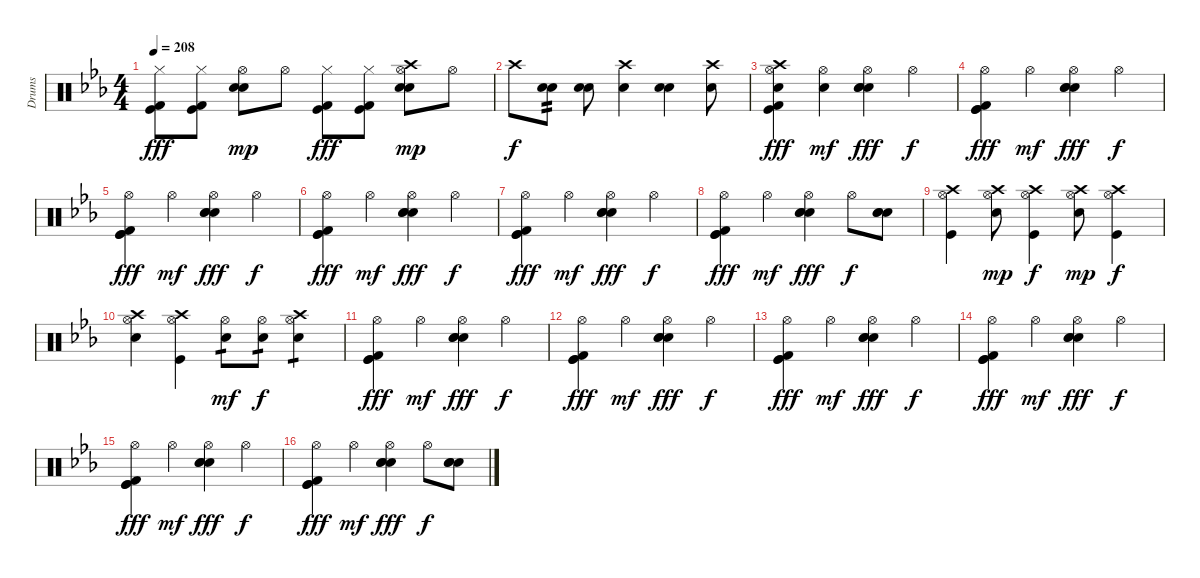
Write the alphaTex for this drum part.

\track ("Drums" "Drums") {instrument percussion}
\staff {score}
\articulation defaults
\ts (4 4)
\tempo 208
\clef neutral
\ks cminor
("Hi-Hat (closed)" "Kick (hit) 2" "Kick (hit)").8{dy fff} ("Hi-Hat (closed)" "Kick (hit) 2" "Kick (hit)").8 ("Hi-Hat (open)" "Snare (hit) 2" "Electric Snare (hit)").8{dy mp} "Hi-Hat (open)".8 ("Hi-Hat (closed)" "Kick (hit) 2" "Kick (hit)").8{dy fff} ("Hi-Hat (closed)" "Kick (hit) 2" "Kick (hit)").8 ("Crash high (hit)" "Hi-Hat (open)" "Snare (hit) 2" "Electric Snare (hit)").8{dy mp} "Hi-Hat (open)".8 |
"Crash high (hit)".8{dy f} ("Snare (hit) 2" "Electric Snare (hit)").8{tp 2} ("Snare (hit) 2" "Electric Snare (hit)").8 ("Crash high (hit)" "Electric Snare (hit)").4 ("Snare (hit) 2" "Electric Snare (hit)").4 ("Crash high (hit)" "Electric Snare (hit)").8 |
("Crash high (hit)" "Kick (hit) 2" "Electric Snare (hit)" "Kick (hit)" "Hi-Hat (open)").4{dy fff} ("Electric Snare (hit)" "Hi-Hat (open)").4{dy mf} ("Snare (hit) 2" "Electric Snare (hit)" "Electric Snare (hit)" "Hi-Hat (open)").4{dy fff} "Hi-Hat (open)".4{dy f} |
("Kick (hit) 2" "Kick (hit)" "Kick (hit)" "Hi-Hat (open)").4{dy fff} "Hi-Hat (open)".4{dy mf} ("Snare (hit) 2" "Electric Snare (hit)" "Electric Snare (hit)" "Hi-Hat (open)").4{dy fff} "Hi-Hat (open)".4{dy f} |
("Kick (hit) 2" "Kick (hit)" "Kick (hit)" "Hi-Hat (open)").4{dy fff} "Hi-Hat (open)".4{dy mf} ("Snare (hit) 2" "Electric Snare (hit)" "Electric Snare (hit)" "Hi-Hat (open)").4{dy fff} "Hi-Hat (open)".4{dy f} |
("Kick (hit) 2" "Kick (hit)" "Kick (hit)" "Hi-Hat (open)").4{dy fff} "Hi-Hat (open)".4{dy mf} ("Snare (hit) 2" "Electric Snare (hit)" "Electric Snare (hit)" "Hi-Hat (open)").4{dy fff} "Hi-Hat (open)".4{dy f} |
("Kick (hit) 2" "Kick (hit)" "Kick (hit)" "Hi-Hat (open)").4{dy fff} "Hi-Hat (open)".4{dy mf} ("Snare (hit) 2" "Electric Snare (hit)" "Electric Snare (hit)" "Hi-Hat (open)").4{dy fff} "Hi-Hat (open)".4{dy f} |
("Kick (hit) 2" "Kick (hit)" "Kick (hit)" "Hi-Hat (open)").4{dy fff} "Hi-Hat (open)".4{dy mf} ("Snare (hit) 2" "Electric Snare (hit)" "Electric Snare (hit)" "Hi-Hat (open)").4{dy fff} "Hi-Hat (open)".8{dy f} ("Snare (hit) 2" "Electric Snare (hit)" "Electric Snare (hit)").8 |
("Hi-Hat (open)" "Crash high (hit)" "Kick (hit)").4 ("Hi-Hat (open)" "Crash high (hit)" "Electric Snare (hit)").8{dy mp} ("Hi-Hat (open)" "Crash high (hit)" "Kick (hit)").4{dy f} ("Hi-Hat (open)" "Crash high (hit)" "Electric Snare (hit)").8{dy mp} ("Hi-Hat (open)" "Crash high (hit)" "Kick (hit)").4{dy f} |
("Hi-Hat (open)" "Crash high (hit)" "Electric Snare (hit)").4 ("Hi-Hat (open)" "Crash high (hit)" "Kick (hit)").4 ("Hi-Hat (open)" "Electric Snare (hit)").8{tp 1 dy mf} ("Hi-Hat (open)" "Electric Snare (hit)").8{tp 1 dy f} ("Hi-Hat (open)" "Crash high (hit)" "Electric Snare (hit)").4{tp 1} |
("Kick (hit) 2" "Kick (hit)" "Kick (hit)" "Hi-Hat (open)").4{dy fff} "Hi-Hat (open)".4{dy mf} ("Snare (hit) 2" "Electric Snare (hit)" "Electric Snare (hit)" "Hi-Hat (open)").4{dy fff} "Hi-Hat (open)".4{dy f} |
("Kick (hit) 2" "Kick (hit)" "Kick (hit)" "Hi-Hat (open)").4{dy fff} "Hi-Hat (open)".4{dy mf} ("Snare (hit) 2" "Electric Snare (hit)" "Electric Snare (hit)" "Hi-Hat (open)").4{dy fff} "Hi-Hat (open)".4{dy f} |
("Kick (hit) 2" "Kick (hit)" "Kick (hit)" "Hi-Hat (open)").4{dy fff} "Hi-Hat (open)".4{dy mf} ("Snare (hit) 2" "Electric Snare (hit)" "Electric Snare (hit)" "Hi-Hat (open)").4{dy fff} "Hi-Hat (open)".4{dy f} |
("Kick (hit) 2" "Kick (hit)" "Kick (hit)" "Hi-Hat (open)").4{dy fff} "Hi-Hat (open)".4{dy mf} ("Snare (hit) 2" "Electric Snare (hit)" "Electric Snare (hit)" "Hi-Hat (open)").4{dy fff} "Hi-Hat (open)".4{dy f} |
("Kick (hit) 2" "Kick (hit)" "Kick (hit)" "Hi-Hat (open)").4{dy fff} "Hi-Hat (open)".4{dy mf} ("Snare (hit) 2" "Electric Snare (hit)" "Electric Snare (hit)" "Hi-Hat (open)").4{dy fff} "Hi-Hat (open)".4{dy f} |
("Kick (hit) 2" "Kick (hit)" "Kick (hit)" "Hi-Hat (open)").4{dy fff} "Hi-Hat (open)".4{dy mf} ("Snare (hit) 2" "Electric Snare (hit)" "Electric Snare (hit)" "Hi-Hat (open)").4{dy fff} "Hi-Hat (open)".8{dy f} ("Snare (hit) 2" "Electric Snare (hit)" "Electric Snare (hit)").8
